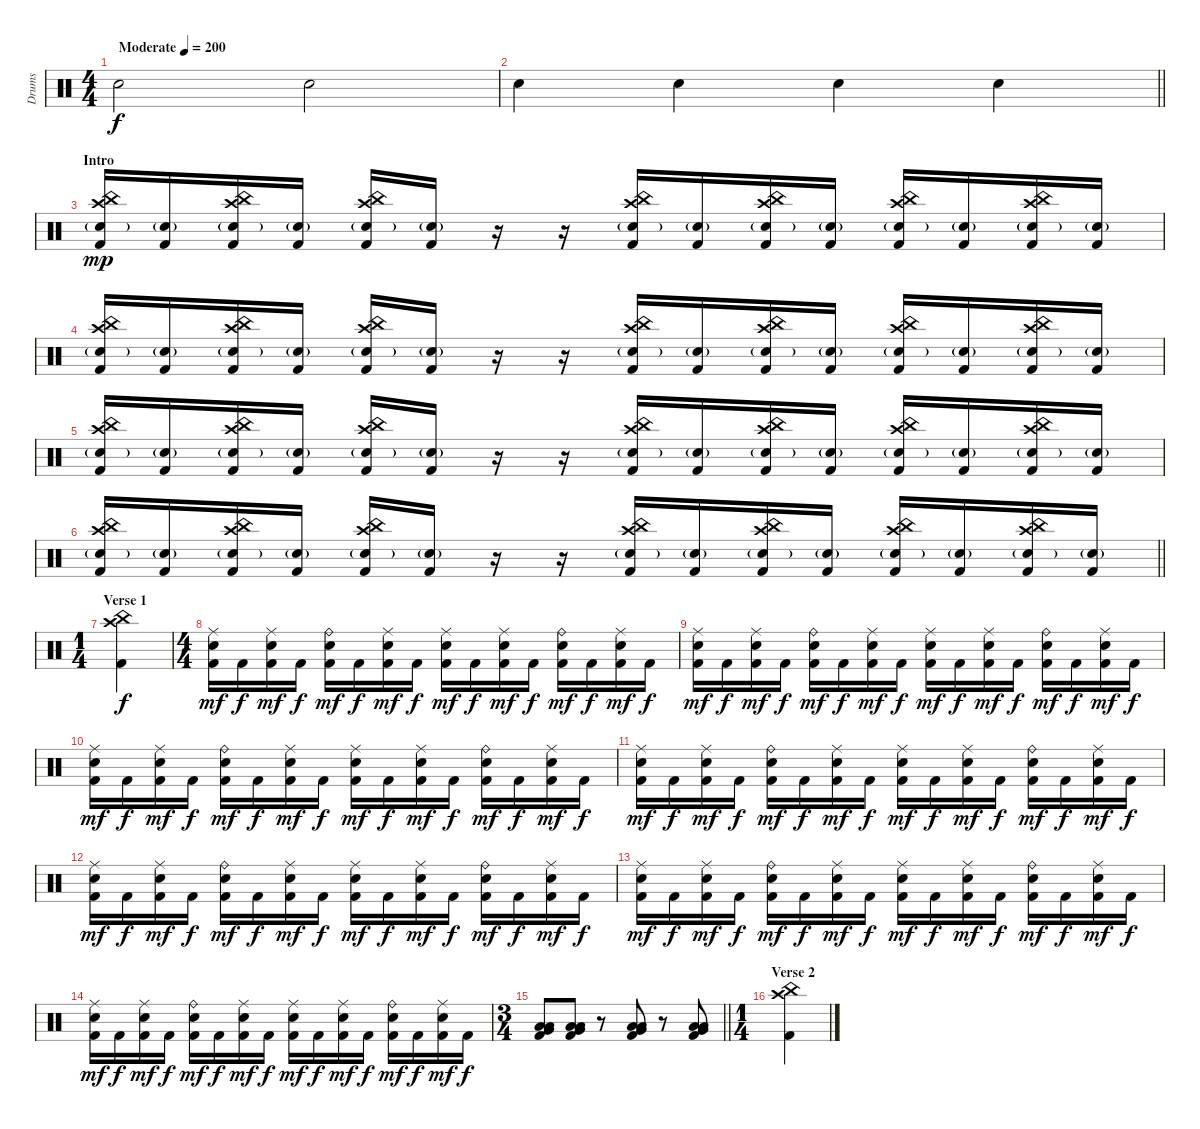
\track ("Drums" "Drums") {instrument percussion}
\staff {score}
\articulation defaults
\ts (4 4)
\tempo (200 "Moderate")
\clef neutral
\ks c "Snare (hit) 2".2{dy f} "Snare (hit) 2".2
|
\barLineRight lightlight "Snare (hit) 2".4 "Snare (hit) 2".4 "Snare (hit) 2".4 "Snare (hit) 2".4
|
\section ("" "Intro")
("Crash high (hit)" "China (hit)" "Snare (hit) 2"{g} "Kick (hit) 2").16{dy mp} ("Snare (hit) 2"{g} "Kick (hit) 2").16 ("Crash high (hit)" "China (hit)" "Snare (hit) 2"{g} "Kick (hit) 2").16 ("Snare (hit) 2"{g} "Kick (hit) 2").16 ("Crash high (hit)" "China (hit)" "Snare (hit) 2"{g} "Kick (hit) 2").16 ("Snare (hit) 2"{g} "Kick (hit) 2").16 r.16 r.16 ("Crash high (hit)" "China (hit)" "Snare (hit) 2"{g} "Kick (hit) 2").16 ("Snare (hit) 2"{g} "Kick (hit) 2").16 ("Crash high (hit)" "China (hit)" "Snare (hit) 2"{g} "Kick (hit) 2").16 ("Snare (hit) 2"{g} "Kick (hit) 2").16 ("Crash high (hit)" "China (hit)" "Snare (hit) 2"{g} "Kick (hit) 2").16 ("Snare (hit) 2"{g} "Kick (hit) 2").16 ("Crash high (hit)" "China (hit)" "Snare (hit) 2"{g} "Kick (hit) 2").16 ("Snare (hit) 2"{g} "Kick (hit) 2").16 |
("Crash high (hit)" "China (hit)" "Snare (hit) 2"{g} "Kick (hit) 2").16 ("Snare (hit) 2"{g} "Kick (hit) 2").16 ("Crash high (hit)" "China (hit)" "Snare (hit) 2"{g} "Kick (hit) 2").16 ("Snare (hit) 2"{g} "Kick (hit) 2").16 ("Crash high (hit)" "China (hit)" "Snare (hit) 2"{g} "Kick (hit) 2").16 ("Snare (hit) 2"{g} "Kick (hit) 2").16 r.16 r.16 ("Crash high (hit)" "China (hit)" "Snare (hit) 2"{g} "Kick (hit) 2").16 ("Snare (hit) 2"{g} "Kick (hit) 2").16 ("Crash high (hit)" "China (hit)" "Snare (hit) 2"{g} "Kick (hit) 2").16 ("Snare (hit) 2"{g} "Kick (hit) 2").16 ("Crash high (hit)" "China (hit)" "Snare (hit) 2"{g} "Kick (hit) 2").16 ("Snare (hit) 2"{g} "Kick (hit) 2").16 ("Crash high (hit)" "China (hit)" "Snare (hit) 2"{g} "Kick (hit) 2").16 ("Snare (hit) 2"{g} "Kick (hit) 2").16 |
("Crash high (hit)" "China (hit)" "Snare (hit) 2"{g} "Kick (hit) 2").16 ("Snare (hit) 2"{g} "Kick (hit) 2").16 ("Crash high (hit)" "China (hit)" "Snare (hit) 2"{g} "Kick (hit) 2").16 ("Snare (hit) 2"{g} "Kick (hit) 2").16 ("Crash high (hit)" "China (hit)" "Snare (hit) 2"{g} "Kick (hit) 2").16 ("Snare (hit) 2"{g} "Kick (hit) 2").16 r.16 r.16 ("Crash high (hit)" "China (hit)" "Snare (hit) 2"{g} "Kick (hit) 2").16 ("Snare (hit) 2"{g} "Kick (hit) 2").16 ("Crash high (hit)" "China (hit)" "Snare (hit) 2"{g} "Kick (hit) 2").16 ("Snare (hit) 2"{g} "Kick (hit) 2").16 ("Crash high (hit)" "China (hit)" "Snare (hit) 2"{g} "Kick (hit) 2").16 ("Snare (hit) 2"{g} "Kick (hit) 2").16 ("Crash high (hit)" "China (hit)" "Snare (hit) 2"{g} "Kick (hit) 2").16 ("Snare (hit) 2"{g} "Kick (hit) 2").16 |
\barLineRight lightlight
("Crash high (hit)" "China (hit)" "Snare (hit) 2"{g} "Kick (hit) 2").16 ("Snare (hit) 2"{g} "Kick (hit) 2").16 ("Crash high (hit)" "China (hit)" "Snare (hit) 2"{g} "Kick (hit) 2").16 ("Snare (hit) 2"{g} "Kick (hit) 2").16 ("Crash high (hit)" "China (hit)" "Snare (hit) 2"{g} "Kick (hit) 2").16 ("Snare (hit) 2"{g} "Kick (hit) 2").16 r.16 r.16 ("Crash high (hit)" "China (hit)" "Snare (hit) 2"{g} "Kick (hit) 2").16 ("Snare (hit) 2"{g} "Kick (hit) 2").16 ("Crash high (hit)" "China (hit)" "Snare (hit) 2"{g} "Kick (hit) 2").16 ("Snare (hit) 2"{g} "Kick (hit) 2").16 ("Crash high (hit)" "China (hit)" "Snare (hit) 2"{g} "Kick (hit) 2").16 ("Snare (hit) 2"{g} "Kick (hit) 2").16 ("Crash high (hit)" "China (hit)" "Snare (hit) 2"{g} "Kick (hit) 2").16 ("Snare (hit) 2"{g} "Kick (hit) 2").16 |
\ts (1 4)
\section ("" "Verse 1")
("Crash high (hit)" "China (hit)" "Kick (hit) 2").4{dy f} |
\ts (4 4)
("Ride (middle)" "Snare (hit) 2" "Kick (hit) 2").16{dy mf} "Kick (hit) 2".16{dy f} ("Ride (middle)" "Snare (hit) 2" "Kick (hit) 2").16{dy mf} "Kick (hit) 2".16{dy f} ("Ride (bell)" "Snare (hit) 2" "Kick (hit) 2").16{dy mf} "Kick (hit) 2".16{dy f} ("Ride (middle)" "Snare (hit) 2" "Kick (hit) 2").16{dy mf} "Kick (hit) 2".16{dy f} ("Ride (middle)" "Snare (hit) 2" "Kick (hit) 2").16{dy mf} "Kick (hit) 2".16{dy f} ("Ride (middle)" "Snare (hit) 2" "Kick (hit) 2").16{dy mf} "Kick (hit) 2".16{dy f} ("Ride (bell)" "Snare (hit) 2" "Kick (hit) 2").16{dy mf} "Kick (hit) 2".16{dy f} ("Ride (middle)" "Snare (hit) 2" "Kick (hit) 2").16{dy mf} "Kick (hit) 2".16{dy f} |
("Ride (middle)" "Snare (hit) 2" "Kick (hit) 2").16{dy mf} "Kick (hit) 2".16{dy f} ("Ride (middle)" "Snare (hit) 2" "Kick (hit) 2").16{dy mf} "Kick (hit) 2".16{dy f} ("Ride (bell)" "Snare (hit) 2" "Kick (hit) 2").16{dy mf} "Kick (hit) 2".16{dy f} ("Ride (middle)" "Snare (hit) 2" "Kick (hit) 2").16{dy mf} "Kick (hit) 2".16{dy f} ("Ride (middle)" "Snare (hit) 2" "Kick (hit) 2").16{dy mf} "Kick (hit) 2".16{dy f} ("Ride (middle)" "Snare (hit) 2" "Kick (hit) 2").16{dy mf} "Kick (hit) 2".16{dy f} ("Ride (bell)" "Snare (hit) 2" "Kick (hit) 2").16{dy mf} "Kick (hit) 2".16{dy f} ("Ride (middle)" "Snare (hit) 2" "Kick (hit) 2").16{dy mf} "Kick (hit) 2".16{dy f} |
("Ride (middle)" "Snare (hit) 2" "Kick (hit) 2").16{dy mf} "Kick (hit) 2".16{dy f} ("Ride (middle)" "Snare (hit) 2" "Kick (hit) 2").16{dy mf} "Kick (hit) 2".16{dy f} ("Ride (bell)" "Snare (hit) 2" "Kick (hit) 2").16{dy mf} "Kick (hit) 2".16{dy f} ("Ride (middle)" "Snare (hit) 2" "Kick (hit) 2").16{dy mf} "Kick (hit) 2".16{dy f} ("Ride (middle)" "Snare (hit) 2" "Kick (hit) 2").16{dy mf} "Kick (hit) 2".16{dy f} ("Ride (middle)" "Snare (hit) 2" "Kick (hit) 2").16{dy mf} "Kick (hit) 2".16{dy f} ("Ride (bell)" "Snare (hit) 2" "Kick (hit) 2").16{dy mf} "Kick (hit) 2".16{dy f} ("Ride (middle)" "Snare (hit) 2" "Kick (hit) 2").16{dy mf} "Kick (hit) 2".16{dy f} |
("Ride (middle)" "Snare (hit) 2" "Kick (hit) 2").16{dy mf} "Kick (hit) 2".16{dy f} ("Ride (middle)" "Snare (hit) 2" "Kick (hit) 2").16{dy mf} "Kick (hit) 2".16{dy f} ("Ride (bell)" "Snare (hit) 2" "Kick (hit) 2").16{dy mf} "Kick (hit) 2".16{dy f} ("Ride (middle)" "Snare (hit) 2" "Kick (hit) 2").16{dy mf} "Kick (hit) 2".16{dy f} ("Ride (middle)" "Snare (hit) 2" "Kick (hit) 2").16{dy mf} "Kick (hit) 2".16{dy f} ("Ride (middle)" "Snare (hit) 2" "Kick (hit) 2").16{dy mf} "Kick (hit) 2".16{dy f} ("Ride (bell)" "Snare (hit) 2" "Kick (hit) 2").16{dy mf} "Kick (hit) 2".16{dy f} ("Ride (middle)" "Snare (hit) 2" "Kick (hit) 2").16{dy mf} "Kick (hit) 2".16{dy f} |
("Ride (middle)" "Snare (hit) 2" "Kick (hit) 2").16{dy mf} "Kick (hit) 2".16{dy f} ("Ride (middle)" "Snare (hit) 2" "Kick (hit) 2").16{dy mf} "Kick (hit) 2".16{dy f} ("Ride (bell)" "Snare (hit) 2" "Kick (hit) 2").16{dy mf} "Kick (hit) 2".16{dy f} ("Ride (middle)" "Snare (hit) 2" "Kick (hit) 2").16{dy mf} "Kick (hit) 2".16{dy f} ("Ride (middle)" "Snare (hit) 2" "Kick (hit) 2").16{dy mf} "Kick (hit) 2".16{dy f} ("Ride (middle)" "Snare (hit) 2" "Kick (hit) 2").16{dy mf} "Kick (hit) 2".16{dy f} ("Ride (bell)" "Snare (hit) 2" "Kick (hit) 2").16{dy mf} "Kick (hit) 2".16{dy f} ("Ride (middle)" "Snare (hit) 2" "Kick (hit) 2").16{dy mf} "Kick (hit) 2".16{dy f} |
("Ride (middle)" "Snare (hit) 2" "Kick (hit) 2").16{dy mf} "Kick (hit) 2".16{dy f} ("Ride (middle)" "Snare (hit) 2" "Kick (hit) 2").16{dy mf} "Kick (hit) 2".16{dy f} ("Ride (bell)" "Snare (hit) 2" "Kick (hit) 2").16{dy mf} "Kick (hit) 2".16{dy f} ("Ride (middle)" "Snare (hit) 2" "Kick (hit) 2").16{dy mf} "Kick (hit) 2".16{dy f} ("Ride (middle)" "Snare (hit) 2" "Kick (hit) 2").16{dy mf} "Kick (hit) 2".16{dy f} ("Ride (middle)" "Snare (hit) 2" "Kick (hit) 2").16{dy mf} "Kick (hit) 2".16{dy f} ("Ride (bell)" "Snare (hit) 2" "Kick (hit) 2").16{dy mf} "Kick (hit) 2".16{dy f} ("Ride (middle)" "Snare (hit) 2" "Kick (hit) 2").16{dy mf} "Kick (hit) 2".16{dy f} |
("Ride (middle)" "Snare (hit) 2" "Kick (hit) 2").16{dy mf} "Kick (hit) 2".16{dy f} ("Ride (middle)" "Snare (hit) 2" "Kick (hit) 2").16{dy mf} "Kick (hit) 2".16{dy f} ("Ride (bell)" "Snare (hit) 2" "Kick (hit) 2").16{dy mf} "Kick (hit) 2".16{dy f} ("Ride (middle)" "Snare (hit) 2" "Kick (hit) 2").16{dy mf} "Kick (hit) 2".16{dy f} ("Ride (middle)" "Snare (hit) 2" "Kick (hit) 2").16{dy mf} "Kick (hit) 2".16{dy f} ("Ride (middle)" "Snare (hit) 2" "Kick (hit) 2").16{dy mf} "Kick (hit) 2".16{dy f} ("Ride (bell)" "Snare (hit) 2" "Kick (hit) 2").16{dy mf} "Kick (hit) 2".16{dy f} ("Ride (middle)" "Snare (hit) 2" "Kick (hit) 2").16{dy mf} "Kick (hit) 2".16{dy f} |
\ts (3 4)
\barLineRight lightlight
("Low Floor Tom (hit)" "Very Low Tom (hit)" "Low Tom (hit)" "Kick (hit) 2").8 ("Low Floor Tom (hit)" "Very Low Tom (hit)" "Low Tom (hit)" "Kick (hit) 2").8 r.8 ("Low Floor Tom (hit)" "Very Low Tom (hit)" "Low Tom (hit)" "Kick (hit) 2").8 r.8 ("Low Floor Tom (hit)" "Very Low Tom (hit)" "Low Tom (hit)" "Kick (hit) 2").8 |
\ts (1 4)
\section ("" "Verse 2")
("Crash high (hit)" "China (hit)" "Kick (hit) 2").4
